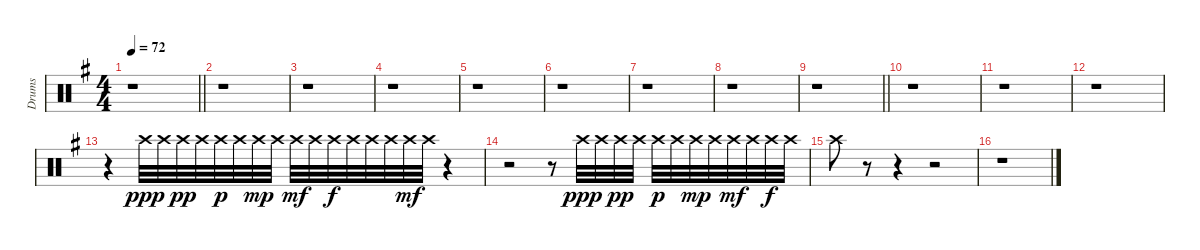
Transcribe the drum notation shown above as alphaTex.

\track ("Drums" "Drums") {instrument percussion}
\staff {score}
\articulation defaults
\ts (4 4)
\tempo 72
\clef neutral
\barLineRight lightlight
\ks eminor
r.1{dy ppp} |
r.1 |
r.1 |
r.1 |
r.1 |
r.1 |
r.1 |
r.1 |
\barLineRight lightlight
r.1 |
r.1 |
r.1 |
r.1 |
r.4 "Crash high (hit)".32 "Crash high (hit)".32 "Crash high (hit)".32{dy pp} "Crash high (hit)".32 "Crash high (hit)".32{dy p} "Crash high (hit)".32 "Crash high (hit)".32{dy mp} "Crash high (hit)".32 "Crash high (hit)".32{dy mf} "Crash high (hit)".32 "Crash high (hit)".32{dy f} "Crash high (hit)".32 "Crash high (hit)".32 "Crash high (hit)".32 "Crash high (hit)".32{dy mf} "Crash high (hit)".32 r.4 |
r.2 r.8 "Crash high (hit)".32{dy ppp} "Crash high (hit)".32 "Crash high (hit)".32{dy pp} "Crash high (hit)".32 "Crash high (hit)".32{dy p} "Crash high (hit)".32 "Crash high (hit)".32{dy mp} "Crash high (hit)".32 "Crash high (hit)".32{dy mf} "Crash high (hit)".32 "Crash high (hit)".32{dy f} "Crash high (hit)".32 |
"Crash high (hit)".8 r.8 r.4 r.2 |
r.1
